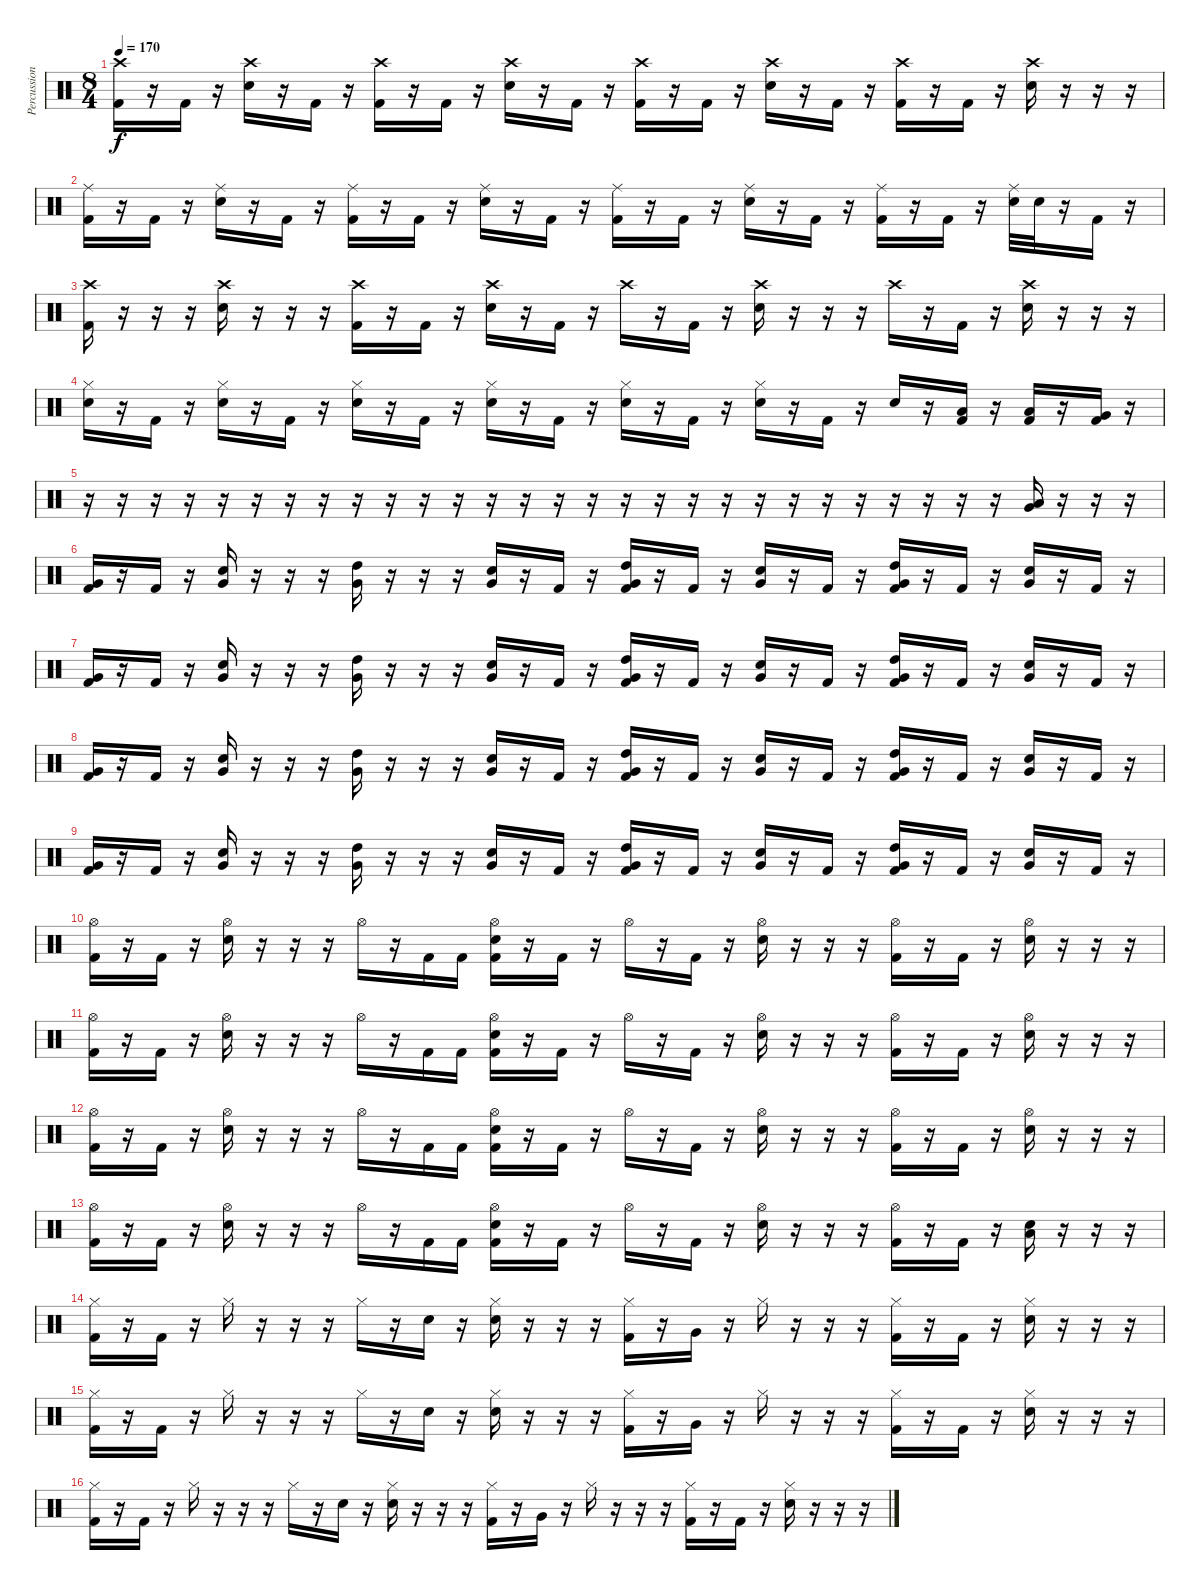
\track ("Percussion" "Percussion") {instrument percussion}
\staff {score}
\articulation defaults
\ts (8 4)
\tempo 170
\clef neutral
\ks c
("Kick (hit) 2" "Crash high (hit)").16{dy f} r.16 "Kick (hit) 2".16 r.16 ("Snare (hit) 2" "Crash high (hit)").16 r.16 "Kick (hit) 2".16 r.16 ("Kick (hit) 2" "Crash high (hit)").16 r.16 "Kick (hit) 2".16 r.16 ("Snare (hit) 2" "Crash high (hit)").16 r.16 "Kick (hit) 2".16 r.16 ("Kick (hit) 2" "Crash high (hit)").16 r.16 "Kick (hit) 2".16 r.16 ("Snare (hit) 2" "Crash high (hit)").16 r.16 "Kick (hit) 2".16 r.16 ("Kick (hit) 2" "Crash high (hit)").16 r.16 "Kick (hit) 2".16 r.16 ("Snare (hit) 2" "Crash high (hit)").16 r.16 r.16 r.16 |
("Kick (hit) 2" "Ride (middle)").16 r.16 "Kick (hit) 2".16 r.16 ("Snare (hit) 2" "Ride (middle)").16 r.16 "Kick (hit) 2".16 r.16 ("Kick (hit) 2" "Ride (middle)").16 r.16 "Kick (hit) 2".16 r.16 ("Snare (hit) 2" "Ride (middle)").16 r.16 "Kick (hit) 2".16 r.16 ("Kick (hit) 2" "Ride (middle)").16 r.16 "Kick (hit) 2".16 r.16 ("Snare (hit) 2" "Ride (middle)").16 r.16 "Kick (hit) 2".16 r.16 ("Kick (hit) 2" "Ride (middle)").16 r.16 "Kick (hit) 2".16 r.16 ("Snare (hit) 2" "Ride (middle)").32 "Snare (hit) 2".32 r.16 "Kick (hit) 2".16 r.16 |
("Kick (hit) 2" "Crash high (hit)").16 r.16 r.16 r.16 ("Snare (hit) 2" "Crash high (hit)").16 r.16 r.16 r.16 ("Kick (hit) 2" "Crash high (hit)").16 r.16 "Kick (hit) 2".16 r.16 ("Snare (hit) 2" "Crash high (hit)").16 r.16 "Kick (hit) 2".16 r.16 "Crash high (hit)".16 r.16 "Kick (hit) 2".16 r.16 ("Snare (hit) 2" "Crash high (hit)").16 r.16 r.16 r.16 "Crash high (hit)".16 r.16 "Kick (hit) 2".16 r.16 ("Snare (hit) 2" "Crash high (hit)").16 r.16 r.16 r.16 |
("Snare (hit) 2" "Hi-Hat (closed)").16 r.16 "Kick (hit) 2".16 r.16 ("Snare (hit) 2" "Hi-Hat (closed)").16 r.16 "Kick (hit) 2".16 r.16 ("Snare (hit) 2" "Hi-Hat (closed)").16 r.16 "Kick (hit) 2".16 r.16 ("Snare (hit) 2" "Hi-Hat (closed)").16 r.16 "Kick (hit) 2".16 r.16 ("Snare (hit) 2" "Hi-Hat (closed)").16 r.16 "Kick (hit) 2".16 r.16 ("Snare (hit) 2" "Hi-Hat (closed)").16 r.16 "Kick (hit) 2".16 r.16 "Snare (hit) 2".16 r.16 ("Kick (hit) 2" "Low Tom (hit)").16 r.16 ("Kick (hit) 2" "Low Tom (hit)").16 r.16 ("Kick (hit) 2" "Very Low Tom (hit)").16 r.16 |
r.16 r.16 r.16 r.16 r.16 r.16 r.16 r.16 r.16 r.16 r.16 r.16 r.16 r.16 r.16 r.16 r.16 r.16 r.16 r.16 r.16 r.16 r.16 r.16 r.16 r.16 r.16 r.16 ("Low Tom (hit)" "Very Low Tom (hit)").16 r.16 r.16 r.16 |
("Kick (hit) 2" "Very Low Tom (hit)").16 r.16 "Kick (hit) 2".16 r.16 ("Very Low Tom (hit)" "Snare (hit) 2").16 r.16 r.16 r.16 ("Very Low Tom (hit)" "High Tom (hit)").16 r.16 r.16 r.16 ("Very Low Tom (hit)" "Snare (hit) 2").16 r.16 "Kick (hit) 2".16 r.16 ("Kick (hit) 2" "Very Low Tom (hit)" "High Tom (hit)").16 r.16 "Kick (hit) 2".16 r.16 ("Very Low Tom (hit)" "Snare (hit) 2").16 r.16 "Kick (hit) 2".16 r.16 ("Kick (hit) 2" "Very Low Tom (hit)" "High Tom (hit)").16 r.16 "Kick (hit) 2".16 r.16 ("Very Low Tom (hit)" "Snare (hit) 2").16 r.16 "Kick (hit) 2".16 r.16 |
("Kick (hit) 2" "Very Low Tom (hit)").16 r.16 "Kick (hit) 2".16 r.16 ("Very Low Tom (hit)" "Snare (hit) 2").16 r.16 r.16 r.16 ("Very Low Tom (hit)" "High Tom (hit)").16 r.16 r.16 r.16 ("Very Low Tom (hit)" "Snare (hit) 2").16 r.16 "Kick (hit) 2".16 r.16 ("Kick (hit) 2" "Very Low Tom (hit)" "High Tom (hit)").16 r.16 "Kick (hit) 2".16 r.16 ("Very Low Tom (hit)" "Snare (hit) 2").16 r.16 "Kick (hit) 2".16 r.16 ("Kick (hit) 2" "Very Low Tom (hit)" "High Tom (hit)").16 r.16 "Kick (hit) 2".16 r.16 ("Very Low Tom (hit)" "Snare (hit) 2").16 r.16 "Kick (hit) 2".16 r.16 |
("Kick (hit) 2" "Very Low Tom (hit)").16 r.16 "Kick (hit) 2".16 r.16 ("Very Low Tom (hit)" "Snare (hit) 2").16 r.16 r.16 r.16 ("Very Low Tom (hit)" "High Tom (hit)").16 r.16 r.16 r.16 ("Very Low Tom (hit)" "Snare (hit) 2").16 r.16 "Kick (hit) 2".16 r.16 ("Kick (hit) 2" "Very Low Tom (hit)" "High Tom (hit)").16 r.16 "Kick (hit) 2".16 r.16 ("Very Low Tom (hit)" "Snare (hit) 2").16 r.16 "Kick (hit) 2".16 r.16 ("Kick (hit) 2" "Very Low Tom (hit)" "High Tom (hit)").16 r.16 "Kick (hit) 2".16 r.16 ("Very Low Tom (hit)" "Snare (hit) 2").16 r.16 "Kick (hit) 2".16 r.16 |
("Kick (hit) 2" "Very Low Tom (hit)").16 r.16 "Kick (hit) 2".16 r.16 ("Very Low Tom (hit)" "Snare (hit) 2").16 r.16 r.16 r.16 ("Very Low Tom (hit)" "High Tom (hit)").16 r.16 r.16 r.16 ("Very Low Tom (hit)" "Snare (hit) 2").16 r.16 "Kick (hit) 2".16 r.16 ("Kick (hit) 2" "Very Low Tom (hit)" "High Tom (hit)").16 r.16 "Kick (hit) 2".16 r.16 ("Very Low Tom (hit)" "Snare (hit) 2").16 r.16 "Kick (hit) 2".16 r.16 ("Kick (hit) 2" "Very Low Tom (hit)" "High Tom (hit)").16 r.16 "Kick (hit) 2".16 r.16 ("Very Low Tom (hit)" "Snare (hit) 2").16 r.16 "Kick (hit) 2".16 r.16 |
("Kick (hit) 2" "Hi-Hat (open)").16 r.16 "Kick (hit) 2".16 r.16 ("Snare (hit) 2" "Hi-Hat (open)").16 r.16 r.16 r.16 "Hi-Hat (open)".16 r.16 "Kick (hit) 2".16 "Kick (hit) 2".16 ("Kick (hit) 2" "Snare (hit) 2" "Hi-Hat (open)").16 r.16 "Kick (hit) 2".16 r.16 "Hi-Hat (open)".16 r.16 "Kick (hit) 2".16 r.16 ("Snare (hit) 2" "Hi-Hat (open)").16 r.16 r.16 r.16 ("Kick (hit) 2" "Hi-Hat (open)").16 r.16 "Kick (hit) 2".16 r.16 ("Snare (hit) 2" "Hi-Hat (open)").16 r.16 r.16 r.16 |
("Kick (hit) 2" "Hi-Hat (open)").16 r.16 "Kick (hit) 2".16 r.16 ("Snare (hit) 2" "Hi-Hat (open)").16 r.16 r.16 r.16 "Hi-Hat (open)".16 r.16 "Kick (hit) 2".16 "Kick (hit) 2".16 ("Kick (hit) 2" "Snare (hit) 2" "Hi-Hat (open)").16 r.16 "Kick (hit) 2".16 r.16 "Hi-Hat (open)".16 r.16 "Kick (hit) 2".16 r.16 ("Snare (hit) 2" "Hi-Hat (open)").16 r.16 r.16 r.16 ("Kick (hit) 2" "Hi-Hat (open)").16 r.16 "Kick (hit) 2".16 r.16 ("Snare (hit) 2" "Hi-Hat (open)").16 r.16 r.16 r.16 |
("Kick (hit) 2" "Hi-Hat (open)").16 r.16 "Kick (hit) 2".16 r.16 ("Snare (hit) 2" "Hi-Hat (open)").16 r.16 r.16 r.16 "Hi-Hat (open)".16 r.16 "Kick (hit) 2".16 "Kick (hit) 2".16 ("Kick (hit) 2" "Snare (hit) 2" "Hi-Hat (open)").16 r.16 "Kick (hit) 2".16 r.16 "Hi-Hat (open)".16 r.16 "Kick (hit) 2".16 r.16 ("Snare (hit) 2" "Hi-Hat (open)").16 r.16 r.16 r.16 ("Kick (hit) 2" "Hi-Hat (open)").16 r.16 "Kick (hit) 2".16 r.16 ("Snare (hit) 2" "Hi-Hat (open)").16 r.16 r.16 r.16 |
("Kick (hit) 2" "Hi-Hat (open)").16 r.16 "Kick (hit) 2".16 r.16 ("Snare (hit) 2" "Hi-Hat (open)").16 r.16 r.16 r.16 "Hi-Hat (open)".16 r.16 "Kick (hit) 2".16 "Kick (hit) 2".16 ("Kick (hit) 2" "Snare (hit) 2" "Hi-Hat (open)").16 r.16 "Kick (hit) 2".16 r.16 "Hi-Hat (open)".16 r.16 "Kick (hit) 2".16 r.16 ("Snare (hit) 2" "Hi-Hat (open)").16 r.16 r.16 r.16 ("Kick (hit) 2" "Hi-Hat (open)").16 r.16 "Kick (hit) 2".16 r.16 ("Low Tom (hit)" "Snare (hit) 2").16 r.16 r.16 r.16 |
("Kick (hit) 2" "Hi-Hat (closed)").16 r.16 "Kick (hit) 2".16 r.16 "Hi-Hat (closed)".16 r.16 r.16 r.16 "Hi-Hat (closed)".16 r.16 "Snare (hit) 2".16 r.16 ("Snare (hit) 2" "Hi-Hat (closed)").16 r.16 r.16 r.16 ("Kick (hit) 2" "Hi-Hat (closed)").16 r.16 "Very Low Tom (hit)".16 r.16 "Hi-Hat (closed)".16 r.16 r.16 r.16 ("Kick (hit) 2" "Hi-Hat (closed)").16 r.16 "Kick (hit) 2".16 r.16 ("Snare (hit) 2" "Hi-Hat (closed)").16 r.16 r.16 r.16 |
("Kick (hit) 2" "Hi-Hat (closed)").16 r.16 "Kick (hit) 2".16 r.16 "Hi-Hat (closed)".16 r.16 r.16 r.16 "Hi-Hat (closed)".16 r.16 "Snare (hit) 2".16 r.16 ("Snare (hit) 2" "Hi-Hat (closed)").16 r.16 r.16 r.16 ("Kick (hit) 2" "Hi-Hat (closed)").16 r.16 "Very Low Tom (hit)".16 r.16 "Hi-Hat (closed)".16 r.16 r.16 r.16 ("Kick (hit) 2" "Hi-Hat (closed)").16 r.16 "Kick (hit) 2".16 r.16 ("Snare (hit) 2" "Hi-Hat (closed)").16 r.16 r.16 r.16 |
("Kick (hit) 2" "Hi-Hat (closed)").16 r.16 "Kick (hit) 2".16 r.16 "Hi-Hat (closed)".16 r.16 r.16 r.16 "Hi-Hat (closed)".16 r.16 "Snare (hit) 2".16 r.16 ("Snare (hit) 2" "Hi-Hat (closed)").16 r.16 r.16 r.16 ("Kick (hit) 2" "Hi-Hat (closed)").16 r.16 "Very Low Tom (hit)".16 r.16 "Hi-Hat (closed)".16 r.16 r.16 r.16 ("Kick (hit) 2" "Hi-Hat (closed)").16 r.16 "Kick (hit) 2".16 r.16 ("Snare (hit) 2" "Hi-Hat (closed)").16 r.16 r.16 r.16
